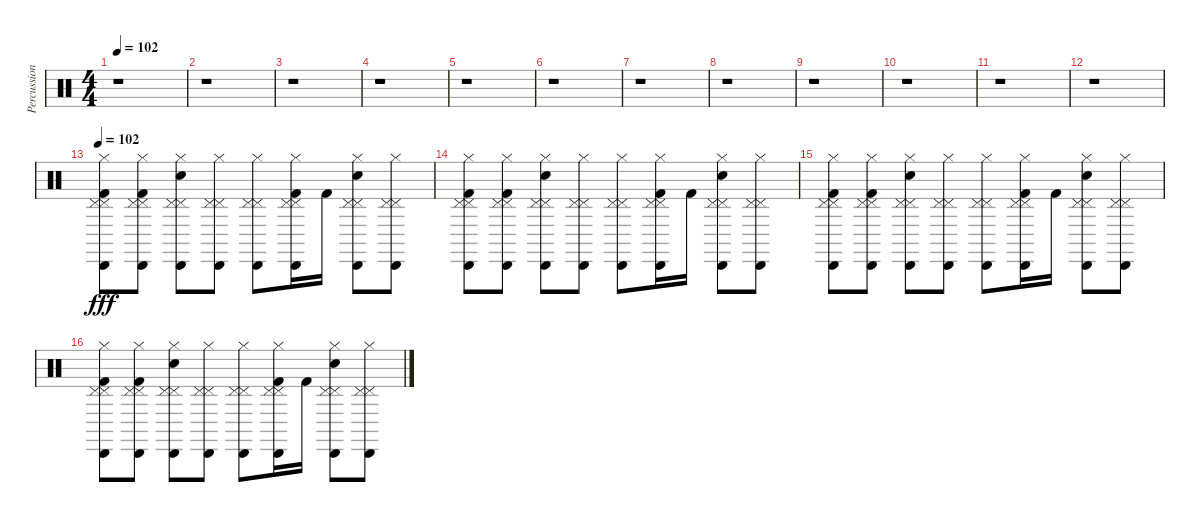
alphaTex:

\track ("Percussion" "Percussion") {instrument percussion}
\staff {score}
\articulation defaults
\ts (4 4)
\tempo 102
\tempo 125
\tempo 102
\clef neutral
\ks c
r.1{dy fff} |
r.1 |
r.1 |
r.1 |
r.1 |
r.1 |
r.1 |
r.1 |
r.1 |
r.1 |
r.1 |
r.1 |
\tempo 102
("Hi-Hat (closed)" "Kick (hit) 2" "Cabasa (hit)" "Pedal Hi-Hat (hit)" "Pedal Hi-Hat (hit)").8 ("Hi-Hat (closed)" "Kick (hit) 2" "Cabasa (hit)" "Pedal Hi-Hat (hit)" "Pedal Hi-Hat (hit)").8 ("Hi-Hat (closed)" "Cabasa (hit)" "Electric Snare (hit)" "Pedal Hi-Hat (hit)" "Pedal Hi-Hat (hit)").8 ("Hi-Hat (closed)" "Cabasa (hit)" "Pedal Hi-Hat (hit)" "Pedal Hi-Hat (hit)").8 ("Hi-Hat (closed)" "Cabasa (hit)" "Pedal Hi-Hat (hit)" "Pedal Hi-Hat (hit)").8 ("Hi-Hat (closed)" "Kick (hit) 2" "Cabasa (hit)" "Pedal Hi-Hat (hit)" "Pedal Hi-Hat (hit)").16 "Kick (hit) 2".16 ("Hi-Hat (closed)" "Cabasa (hit)" "Electric Snare (hit)" "Pedal Hi-Hat (hit)" "Pedal Hi-Hat (hit)").8 ("Hi-Hat (closed)" "Cabasa (hit)" "Pedal Hi-Hat (hit)" "Pedal Hi-Hat (hit)").8 |
("Hi-Hat (closed)" "Kick (hit) 2" "Cabasa (hit)" "Pedal Hi-Hat (hit)" "Pedal Hi-Hat (hit)").8 ("Hi-Hat (closed)" "Kick (hit) 2" "Cabasa (hit)" "Pedal Hi-Hat (hit)" "Pedal Hi-Hat (hit)").8 ("Hi-Hat (closed)" "Cabasa (hit)" "Electric Snare (hit)" "Pedal Hi-Hat (hit)" "Pedal Hi-Hat (hit)").8 ("Hi-Hat (closed)" "Cabasa (hit)" "Pedal Hi-Hat (hit)" "Pedal Hi-Hat (hit)").8 ("Hi-Hat (closed)" "Cabasa (hit)" "Pedal Hi-Hat (hit)" "Pedal Hi-Hat (hit)").8 ("Hi-Hat (closed)" "Kick (hit) 2" "Cabasa (hit)" "Pedal Hi-Hat (hit)" "Pedal Hi-Hat (hit)").16 "Kick (hit) 2".16 ("Hi-Hat (closed)" "Cabasa (hit)" "Electric Snare (hit)" "Pedal Hi-Hat (hit)" "Pedal Hi-Hat (hit)").8 ("Hi-Hat (closed)" "Cabasa (hit)" "Pedal Hi-Hat (hit)" "Pedal Hi-Hat (hit)").8 |
("Hi-Hat (closed)" "Kick (hit) 2" "Cabasa (hit)" "Pedal Hi-Hat (hit)" "Pedal Hi-Hat (hit)").8 ("Hi-Hat (closed)" "Kick (hit) 2" "Cabasa (hit)" "Pedal Hi-Hat (hit)" "Pedal Hi-Hat (hit)").8 ("Hi-Hat (closed)" "Cabasa (hit)" "Electric Snare (hit)" "Pedal Hi-Hat (hit)" "Pedal Hi-Hat (hit)").8 ("Hi-Hat (closed)" "Cabasa (hit)" "Pedal Hi-Hat (hit)" "Pedal Hi-Hat (hit)").8 ("Hi-Hat (closed)" "Cabasa (hit)" "Pedal Hi-Hat (hit)" "Pedal Hi-Hat (hit)").8 ("Hi-Hat (closed)" "Kick (hit) 2" "Cabasa (hit)" "Pedal Hi-Hat (hit)" "Pedal Hi-Hat (hit)").16 "Kick (hit) 2".16 ("Hi-Hat (closed)" "Cabasa (hit)" "Electric Snare (hit)" "Pedal Hi-Hat (hit)" "Pedal Hi-Hat (hit)").8 ("Hi-Hat (closed)" "Cabasa (hit)" "Pedal Hi-Hat (hit)" "Pedal Hi-Hat (hit)").8 |
("Hi-Hat (closed)" "Kick (hit) 2" "Cabasa (hit)" "Pedal Hi-Hat (hit)" "Pedal Hi-Hat (hit)").8 ("Hi-Hat (closed)" "Kick (hit) 2" "Cabasa (hit)" "Pedal Hi-Hat (hit)" "Pedal Hi-Hat (hit)").8 ("Hi-Hat (closed)" "Cabasa (hit)" "Electric Snare (hit)" "Pedal Hi-Hat (hit)" "Pedal Hi-Hat (hit)").8 ("Hi-Hat (closed)" "Cabasa (hit)" "Pedal Hi-Hat (hit)" "Pedal Hi-Hat (hit)").8 ("Hi-Hat (closed)" "Cabasa (hit)" "Pedal Hi-Hat (hit)" "Pedal Hi-Hat (hit)").8 ("Hi-Hat (closed)" "Kick (hit) 2" "Cabasa (hit)" "Pedal Hi-Hat (hit)" "Pedal Hi-Hat (hit)").16 "Kick (hit) 2".16 ("Hi-Hat (closed)" "Cabasa (hit)" "Electric Snare (hit)" "Pedal Hi-Hat (hit)" "Pedal Hi-Hat (hit)").8 ("Hi-Hat (closed)" "Cabasa (hit)" "Pedal Hi-Hat (hit)" "Pedal Hi-Hat (hit)").8
